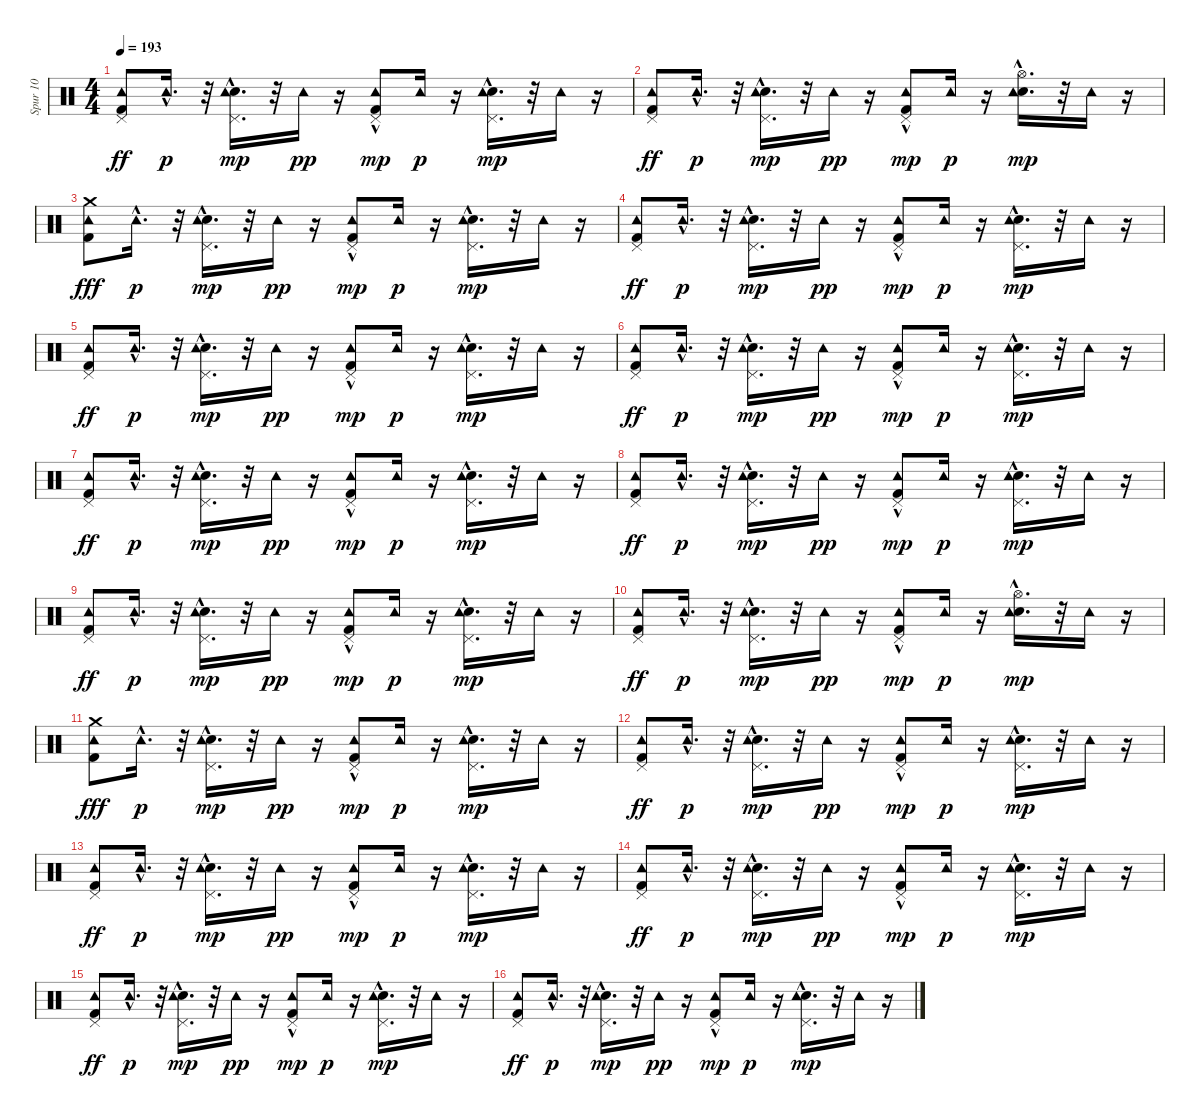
\track ("Spur 10" "Spur 10") {instrument percussion}
\staff {score}
\articulation defaults
\ts (4 4)
\tempo 193
\clef neutral
\ks c
("Tambourine (hit)" "Kick (hit) 2" "Pedal Hi-Hat (hit)").8{dy ff} "Tambourine (hit)"{hac}.16{d dy p} r.32 ("Pedal Hi-Hat (hit)" "Snare (hit) 2"{hac} "Tambourine (hit)").16{d dy mp} r.32 "Tambourine (hit)".16{dy pp} r.16 ("Kick (hit) 2" "Pedal Hi-Hat (hit)" "Tambourine (hit)"{hac}).8{dy mp} "Tambourine (hit)".16{dy p} r.16 ("Snare (hit) 2"{hac} "Pedal Hi-Hat (hit)"{hac} "Tambourine (hit)").16{d dy mp} r.32 "Tambourine (hit)".16 r.16 |
("Tambourine (hit)" "Kick (hit) 2" "Pedal Hi-Hat (hit)").8{dy ff} "Tambourine (hit)"{hac}.16{d dy p} r.32 ("Pedal Hi-Hat (hit)" "Snare (hit) 2"{hac} "Tambourine (hit)").16{d dy mp} r.32 "Tambourine (hit)".16{dy pp} r.16 ("Kick (hit) 2" "Pedal Hi-Hat (hit)" "Tambourine (hit)"{hac}).8{dy mp} "Tambourine (hit)".16{dy p} r.16 ("Snare (hit) 2"{hac} "Hi-Hat (open)"{hac} "Tambourine (hit)").16{d dy mp} r.32 "Tambourine (hit)".16 r.16 |
("Tambourine (hit)" "Kick (hit) 2" "Crash medium (hit)").8{dy fff} "Tambourine (hit)"{hac}.16{d dy p} r.32 ("Pedal Hi-Hat (hit)" "Snare (hit) 2"{hac} "Tambourine (hit)").16{d dy mp} r.32 "Tambourine (hit)".16{dy pp} r.16 ("Kick (hit) 2" "Pedal Hi-Hat (hit)" "Tambourine (hit)"{hac}).8{dy mp} "Tambourine (hit)".16{dy p} r.16 ("Snare (hit) 2"{hac} "Pedal Hi-Hat (hit)"{hac} "Tambourine (hit)").16{d dy mp} r.32 "Tambourine (hit)".16 r.16 |
("Tambourine (hit)" "Kick (hit) 2" "Pedal Hi-Hat (hit)").8{dy ff} "Tambourine (hit)"{hac}.16{d dy p} r.32 ("Pedal Hi-Hat (hit)" "Snare (hit) 2"{hac} "Tambourine (hit)").16{d dy mp} r.32 "Tambourine (hit)".16{dy pp} r.16 ("Kick (hit) 2" "Pedal Hi-Hat (hit)" "Tambourine (hit)"{hac}).8{dy mp} "Tambourine (hit)".16{dy p} r.16 ("Snare (hit) 2"{hac} "Pedal Hi-Hat (hit)"{hac} "Tambourine (hit)").16{d dy mp} r.32 "Tambourine (hit)".16 r.16 |
("Tambourine (hit)" "Kick (hit) 2" "Pedal Hi-Hat (hit)").8{dy ff} "Tambourine (hit)"{hac}.16{d dy p} r.32 ("Pedal Hi-Hat (hit)" "Snare (hit) 2"{hac} "Tambourine (hit)").16{d dy mp} r.32 "Tambourine (hit)".16{dy pp} r.16 ("Kick (hit) 2" "Pedal Hi-Hat (hit)" "Tambourine (hit)"{hac}).8{dy mp} "Tambourine (hit)".16{dy p} r.16 ("Snare (hit) 2"{hac} "Pedal Hi-Hat (hit)"{hac} "Tambourine (hit)").16{d dy mp} r.32 "Tambourine (hit)".16 r.16 |
("Tambourine (hit)" "Kick (hit) 2" "Pedal Hi-Hat (hit)").8{dy ff} "Tambourine (hit)"{hac}.16{d dy p} r.32 ("Pedal Hi-Hat (hit)" "Snare (hit) 2"{hac} "Tambourine (hit)").16{d dy mp} r.32 "Tambourine (hit)".16{dy pp} r.16 ("Kick (hit) 2" "Pedal Hi-Hat (hit)" "Tambourine (hit)"{hac}).8{dy mp} "Tambourine (hit)".16{dy p} r.16 ("Snare (hit) 2"{hac} "Pedal Hi-Hat (hit)"{hac} "Tambourine (hit)").16{d dy mp} r.32 "Tambourine (hit)".16 r.16 |
("Tambourine (hit)" "Kick (hit) 2" "Pedal Hi-Hat (hit)").8{dy ff} "Tambourine (hit)"{hac}.16{d dy p} r.32 ("Pedal Hi-Hat (hit)" "Snare (hit) 2"{hac} "Tambourine (hit)").16{d dy mp} r.32 "Tambourine (hit)".16{dy pp} r.16 ("Kick (hit) 2" "Pedal Hi-Hat (hit)" "Tambourine (hit)"{hac}).8{dy mp} "Tambourine (hit)".16{dy p} r.16 ("Snare (hit) 2"{hac} "Pedal Hi-Hat (hit)"{hac} "Tambourine (hit)").16{d dy mp} r.32 "Tambourine (hit)".16 r.16 |
("Tambourine (hit)" "Kick (hit) 2" "Pedal Hi-Hat (hit)").8{dy ff} "Tambourine (hit)"{hac}.16{d dy p} r.32 ("Pedal Hi-Hat (hit)" "Snare (hit) 2"{hac} "Tambourine (hit)").16{d dy mp} r.32 "Tambourine (hit)".16{dy pp} r.16 ("Kick (hit) 2" "Pedal Hi-Hat (hit)" "Tambourine (hit)"{hac}).8{dy mp} "Tambourine (hit)".16{dy p} r.16 ("Snare (hit) 2"{hac} "Pedal Hi-Hat (hit)"{hac} "Tambourine (hit)").16{d dy mp} r.32 "Tambourine (hit)".16 r.16 |
("Tambourine (hit)" "Kick (hit) 2" "Pedal Hi-Hat (hit)").8{dy ff} "Tambourine (hit)"{hac}.16{d dy p} r.32 ("Pedal Hi-Hat (hit)" "Snare (hit) 2"{hac} "Tambourine (hit)").16{d dy mp} r.32 "Tambourine (hit)".16{dy pp} r.16 ("Kick (hit) 2" "Pedal Hi-Hat (hit)" "Tambourine (hit)"{hac}).8{dy mp} "Tambourine (hit)".16{dy p} r.16 ("Snare (hit) 2"{hac} "Pedal Hi-Hat (hit)"{hac} "Tambourine (hit)").16{d dy mp} r.32 "Tambourine (hit)".16 r.16 |
("Tambourine (hit)" "Kick (hit) 2" "Pedal Hi-Hat (hit)").8{dy ff} "Tambourine (hit)"{hac}.16{d dy p} r.32 ("Pedal Hi-Hat (hit)" "Snare (hit) 2"{hac} "Tambourine (hit)").16{d dy mp} r.32 "Tambourine (hit)".16{dy pp} r.16 ("Kick (hit) 2" "Pedal Hi-Hat (hit)" "Tambourine (hit)"{hac}).8{dy mp} "Tambourine (hit)".16{dy p} r.16 ("Snare (hit) 2"{hac} "Hi-Hat (open)"{hac} "Tambourine (hit)").16{d dy mp} r.32 "Tambourine (hit)".16 r.16 |
("Tambourine (hit)" "Kick (hit) 2" "Crash medium (hit)").8{dy fff} "Tambourine (hit)"{hac}.16{d dy p} r.32 ("Pedal Hi-Hat (hit)" "Snare (hit) 2"{hac} "Tambourine (hit)").16{d dy mp} r.32 "Tambourine (hit)".16{dy pp} r.16 ("Kick (hit) 2" "Pedal Hi-Hat (hit)" "Tambourine (hit)"{hac}).8{dy mp} "Tambourine (hit)".16{dy p} r.16 ("Snare (hit) 2"{hac} "Pedal Hi-Hat (hit)"{hac} "Tambourine (hit)").16{d dy mp} r.32 "Tambourine (hit)".16 r.16 |
("Tambourine (hit)" "Kick (hit) 2" "Pedal Hi-Hat (hit)").8{dy ff} "Tambourine (hit)"{hac}.16{d dy p} r.32 ("Pedal Hi-Hat (hit)" "Snare (hit) 2"{hac} "Tambourine (hit)").16{d dy mp} r.32 "Tambourine (hit)".16{dy pp} r.16 ("Kick (hit) 2" "Pedal Hi-Hat (hit)" "Tambourine (hit)"{hac}).8{dy mp} "Tambourine (hit)".16{dy p} r.16 ("Snare (hit) 2"{hac} "Pedal Hi-Hat (hit)"{hac} "Tambourine (hit)").16{d dy mp} r.32 "Tambourine (hit)".16 r.16 |
("Tambourine (hit)" "Kick (hit) 2" "Pedal Hi-Hat (hit)").8{dy ff} "Tambourine (hit)"{hac}.16{d dy p} r.32 ("Pedal Hi-Hat (hit)" "Snare (hit) 2"{hac} "Tambourine (hit)").16{d dy mp} r.32 "Tambourine (hit)".16{dy pp} r.16 ("Kick (hit) 2" "Pedal Hi-Hat (hit)" "Tambourine (hit)"{hac}).8{dy mp} "Tambourine (hit)".16{dy p} r.16 ("Snare (hit) 2"{hac} "Pedal Hi-Hat (hit)"{hac} "Tambourine (hit)").16{d dy mp} r.32 "Tambourine (hit)".16 r.16 |
("Tambourine (hit)" "Kick (hit) 2" "Pedal Hi-Hat (hit)").8{dy ff} "Tambourine (hit)"{hac}.16{d dy p} r.32 ("Pedal Hi-Hat (hit)" "Snare (hit) 2"{hac} "Tambourine (hit)").16{d dy mp} r.32 "Tambourine (hit)".16{dy pp} r.16 ("Kick (hit) 2" "Pedal Hi-Hat (hit)" "Tambourine (hit)"{hac}).8{dy mp} "Tambourine (hit)".16{dy p} r.16 ("Snare (hit) 2"{hac} "Pedal Hi-Hat (hit)"{hac} "Tambourine (hit)").16{d dy mp} r.32 "Tambourine (hit)".16 r.16 |
("Tambourine (hit)" "Kick (hit) 2" "Pedal Hi-Hat (hit)").8{dy ff} "Tambourine (hit)"{hac}.16{d dy p} r.32 ("Pedal Hi-Hat (hit)" "Snare (hit) 2"{hac} "Tambourine (hit)").16{d dy mp} r.32 "Tambourine (hit)".16{dy pp} r.16 ("Kick (hit) 2" "Pedal Hi-Hat (hit)" "Tambourine (hit)"{hac}).8{dy mp} "Tambourine (hit)".16{dy p} r.16 ("Snare (hit) 2"{hac} "Pedal Hi-Hat (hit)"{hac} "Tambourine (hit)").16{d dy mp} r.32 "Tambourine (hit)".16 r.16 |
("Tambourine (hit)" "Kick (hit) 2" "Pedal Hi-Hat (hit)").8{dy ff} "Tambourine (hit)"{hac}.16{d dy p} r.32 ("Pedal Hi-Hat (hit)" "Snare (hit) 2"{hac} "Tambourine (hit)").16{d dy mp} r.32 "Tambourine (hit)".16{dy pp} r.16 ("Kick (hit) 2" "Pedal Hi-Hat (hit)" "Tambourine (hit)"{hac}).8{dy mp} "Tambourine (hit)".16{dy p} r.16 ("Snare (hit) 2"{hac} "Pedal Hi-Hat (hit)"{hac} "Tambourine (hit)").16{d dy mp} r.32 "Tambourine (hit)".16 r.16
